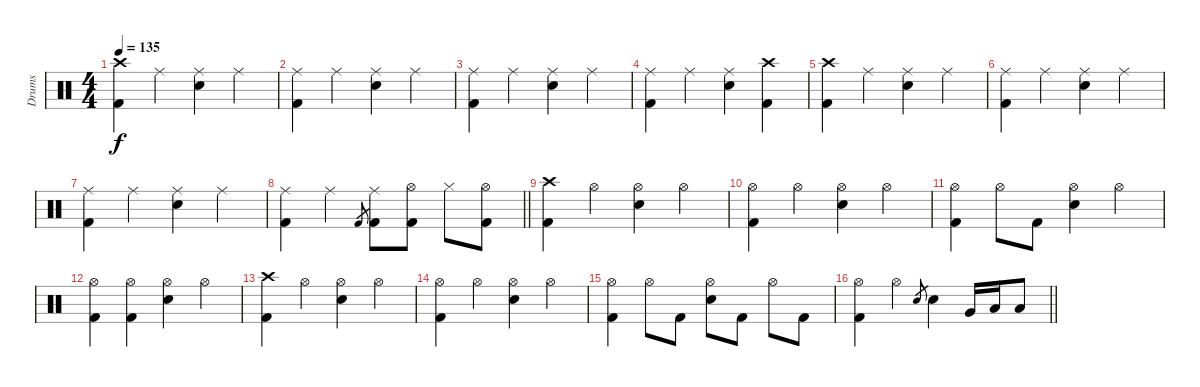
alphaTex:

\track ("Drums" "Drums") {instrument percussion}
\staff {score}
\articulation defaults
\ts (4 4)
\tempo 135
\clef neutral
\ks c
("Crash high (hit)" "Kick (hit) 2").4{dy f} "Ride (middle)".4 ("Ride (middle)" "Electric Snare (hit)").4 "Ride (middle)".4 |
("Ride (middle)" "Kick (hit) 2").4 "Ride (middle)".4 ("Ride (middle)" "Electric Snare (hit)").4 "Ride (middle)".4 |
("Ride (middle)" "Kick (hit) 2").4 "Ride (middle)".4 ("Ride (middle)" "Electric Snare (hit)").4 "Ride (middle)".4 |
("Ride (middle)" "Kick (hit) 2").4 "Ride (middle)".4 ("Ride (middle)" "Electric Snare (hit)").4 ("Crash high (hit)" "Kick (hit) 2").4 |
("Crash high (hit)" "Kick (hit) 2").4 "Ride (middle)".4 ("Ride (middle)" "Electric Snare (hit)").4 "Ride (middle)".4 |
("Ride (middle)" "Kick (hit) 2").4 "Ride (middle)".4 ("Ride (middle)" "Electric Snare (hit)").4 "Ride (middle)".4 |
("Ride (middle)" "Kick (hit) 2").4 "Ride (middle)".4 ("Ride (middle)" "Electric Snare (hit)").4 "Ride (middle)".4 |
\barLineRight lightlight
("Ride (middle)" "Kick (hit) 2").4 "Ride (middle)".4 "Kick (hit) 2".8{gr} ("Ride (middle)" "Kick (hit) 2").8 ("Hi-Hat (open)" "Kick (hit) 2").8 "Hi-Hat (closed)".8 ("Hi-Hat (open)" "Kick (hit) 2").8 |
("Crash high (hit)" "Kick (hit) 2").4 "Hi-Hat (open)".4 ("Hi-Hat (open)" "Electric Snare (hit)").4 "Hi-Hat (open)".4 |
("Hi-Hat (open)" "Kick (hit) 2").4 "Hi-Hat (open)".4 ("Hi-Hat (open)" "Electric Snare (hit)").4 "Hi-Hat (open)".4 |
("Hi-Hat (open)" "Kick (hit) 2").4 "Hi-Hat (open)".8 "Kick (hit) 2".8 ("Hi-Hat (open)" "Electric Snare (hit)").4 "Hi-Hat (open)".4 |
("Hi-Hat (open)" "Kick (hit) 2").4 ("Hi-Hat (open)" "Kick (hit) 2").4 ("Hi-Hat (open)" "Electric Snare (hit)").4 "Hi-Hat (open)".4 |
("Crash high (hit)" "Kick (hit) 2").4 "Hi-Hat (open)".4 ("Hi-Hat (open)" "Electric Snare (hit)").4 "Hi-Hat (open)".4 |
("Hi-Hat (open)" "Kick (hit) 2").4 "Hi-Hat (open)".4 ("Hi-Hat (open)" "Electric Snare (hit)").4 "Hi-Hat (open)".4 |
("Hi-Hat (open)" "Kick (hit) 2").4 "Hi-Hat (open)".8 "Kick (hit) 2".8 ("Hi-Hat (open)" "Electric Snare (hit)").8 "Kick (hit) 2".8 "Hi-Hat (open)".8 "Kick (hit) 2".8 |
\barLineRight lightlight
("Hi-Hat (open)" "Kick (hit) 2").4 "Hi-Hat (open)".4 "Electric Snare (hit)".8{gr} "Electric Snare (hit)".4 "Very Low Tom (hit)".16 "Low Floor Tom (hit)".16 "Low Floor Tom (hit)".8
